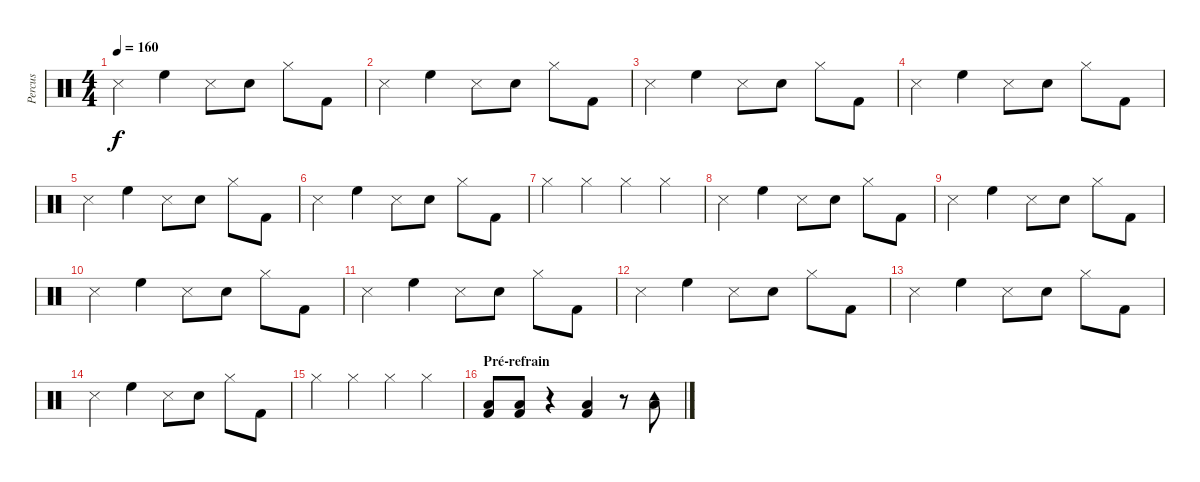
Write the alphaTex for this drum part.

\track ("Percus" "Percus") {instrument percussion}
\staff {score}
\articulation defaults
\ts (4 4)
\tempo 160
\clef neutral
\ks c "Snare (side stick) 3".4{dy f} "High Floor Tom (hit)".4 "Snare (side stick) 3".8 "Snare (hit) 2".8 "Hi-Hat (closed)".8 "Kick (hit) 2".8
|
"Snare (side stick) 3".4 "High Floor Tom (hit)".4 "Snare (side stick) 3".8 "Snare (hit) 2".8 "Hi-Hat (closed)".8 "Kick (hit) 2".8 |
"Snare (side stick) 3".4 "High Floor Tom (hit)".4 "Snare (side stick) 3".8 "Snare (hit) 2".8 "Hi-Hat (closed)".8 "Kick (hit) 2".8 |
"Snare (side stick) 3".4 "High Floor Tom (hit)".4 "Snare (side stick) 3".8 "Snare (hit) 2".8 "Hi-Hat (closed)".8 "Kick (hit) 2".8 |
"Snare (side stick) 3".4 "High Floor Tom (hit)".4 "Snare (side stick) 3".8 "Snare (hit) 2".8 "Hi-Hat (closed)".8 "Kick (hit) 2".8 |
"Snare (side stick) 3".4 "High Floor Tom (hit)".4 "Snare (side stick) 3".8 "Snare (hit) 2".8 "Hi-Hat (closed)".8 "Kick (hit) 2".8 |
"Hi-Hat (closed)".4 "Hi-Hat (closed)".4 "Hi-Hat (closed)".4 "Hi-Hat (closed)".4 |
"Snare (side stick) 3".4 "High Floor Tom (hit)".4 "Snare (side stick) 3".8 "Snare (hit) 2".8 "Hi-Hat (closed)".8 "Kick (hit) 2".8 |
"Snare (side stick) 3".4 "High Floor Tom (hit)".4 "Snare (side stick) 3".8 "Snare (hit) 2".8 "Hi-Hat (closed)".8 "Kick (hit) 2".8 |
"Snare (side stick) 3".4 "High Floor Tom (hit)".4 "Snare (side stick) 3".8 "Snare (hit) 2".8 "Hi-Hat (closed)".8 "Kick (hit) 2".8 |
"Snare (side stick) 3".4 "High Floor Tom (hit)".4 "Snare (side stick) 3".8 "Snare (hit) 2".8 "Hi-Hat (closed)".8 "Kick (hit) 2".8 |
"Snare (side stick) 3".4 "High Floor Tom (hit)".4 "Snare (side stick) 3".8 "Snare (hit) 2".8 "Hi-Hat (closed)".8 "Kick (hit) 2".8 |
"Snare (side stick) 3".4 "High Floor Tom (hit)".4 "Snare (side stick) 3".8 "Snare (hit) 2".8 "Hi-Hat (closed)".8 "Kick (hit) 2".8 |
"Snare (side stick) 3".4 "High Floor Tom (hit)".4 "Snare (side stick) 3".8 "Snare (hit) 2".8 "Hi-Hat (closed)".8 "Kick (hit) 2".8 |
"Hi-Hat (closed)".4 "Hi-Hat (closed)".4 "Hi-Hat (closed)".4 "Hi-Hat (closed)".4 |
\section ("" "Pré-refrain")
("Kick (hit) 2" "Low Tom (hit)").8 ("Kick (hit) 2" "Low Tom (hit)").8 r.4 ("Kick (hit) 2" "Low Tom (hit)").4 r.8 ("Tambourine (hit)" "Low Floor Tom (hit)").8
